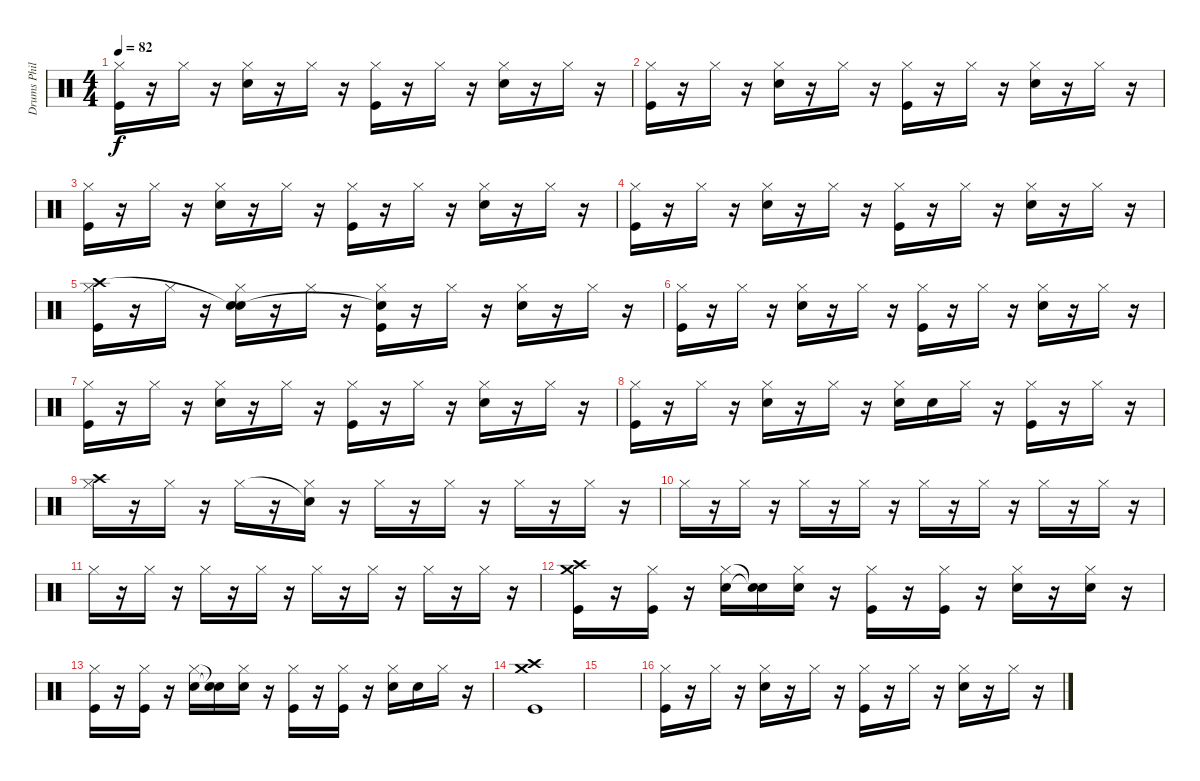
\track ("Drums Phill" "Drums Phil") {instrument percussion}
\staff {score}
\articulation defaults
\ts (4 4)
\tempo 82
\clef neutral
\ks c
("Hi-Hat (closed)" "Kick (hit)").16{dy f} r.16 "Hi-Hat (closed)".16 r.16 ("Hi-Hat (closed)" "Snare (hit) 2").16 r.16 "Hi-Hat (closed)".16 r.16 ("Hi-Hat (closed)" "Kick (hit)").16 r.16 "Hi-Hat (closed)".16 r.16 ("Hi-Hat (closed)" "Snare (hit) 2").16 r.16 "Hi-Hat (closed)".16 r.16 |
("Hi-Hat (closed)" "Kick (hit)").16 r.16 "Hi-Hat (closed)".16 r.16 ("Hi-Hat (closed)" "Snare (hit) 2").16 r.16 "Hi-Hat (closed)".16 r.16 ("Hi-Hat (closed)" "Kick (hit)").16 r.16 "Hi-Hat (closed)".16 r.16 ("Hi-Hat (closed)" "Snare (hit) 2").16 r.16 "Hi-Hat (closed)".16 r.16 |
("Hi-Hat (closed)" "Kick (hit)").16 r.16 "Hi-Hat (closed)".16 r.16 ("Hi-Hat (closed)" "Snare (hit) 2").16 r.16 "Hi-Hat (closed)".16 r.16 ("Hi-Hat (closed)" "Kick (hit)").16 r.16 "Hi-Hat (closed)".16 r.16 ("Hi-Hat (closed)" "Snare (hit) 2").16 r.16 "Hi-Hat (closed)".16 r.16 |
("Hi-Hat (closed)" "Kick (hit)").16 r.16 "Hi-Hat (closed)".16 r.16 ("Hi-Hat (closed)" "Snare (hit) 2").16 r.16 "Hi-Hat (closed)".16 r.16 ("Hi-Hat (closed)" "Kick (hit)").16 r.16 "Hi-Hat (closed)".16 r.16 ("Hi-Hat (closed)" "Snare (hit) 2").16 r.16 "Hi-Hat (closed)".16 r.16 |
("Hi-Hat (closed)" "Crash high (hit)" "Kick (hit)").16 r.16 "Hi-Hat (closed)".16 r.16 ("Hi-Hat (closed)" "Snare (hit)"{t} "Snare (hit) 2").16 r.16 "Hi-Hat (closed)".16 r.16 ("Hi-Hat (closed)" "Snare (hit)"{t} "Kick (hit)").16 r.16 "Hi-Hat (closed)".16 r.16 ("Hi-Hat (closed)" "Snare (hit) 2").16 r.16 "Hi-Hat (closed)".16 r.16 |
("Hi-Hat (closed)" "Kick (hit)").16 r.16 "Hi-Hat (closed)".16 r.16 ("Hi-Hat (closed)" "Snare (hit) 2").16 r.16 "Hi-Hat (closed)".16 r.16 ("Hi-Hat (closed)" "Kick (hit)").16 r.16 "Hi-Hat (closed)".16 r.16 ("Hi-Hat (closed)" "Snare (hit) 2").16 r.16 "Hi-Hat (closed)".16 r.16 |
("Hi-Hat (closed)" "Kick (hit)").16 r.16 "Hi-Hat (closed)".16 r.16 ("Hi-Hat (closed)" "Snare (hit) 2").16 r.16 "Hi-Hat (closed)".16 r.16 ("Hi-Hat (closed)" "Kick (hit)").16 r.16 "Hi-Hat (closed)".16 r.16 ("Hi-Hat (closed)" "Snare (hit) 2").16 r.16 "Hi-Hat (closed)".16 r.16 |
("Hi-Hat (closed)" "Kick (hit)").16 r.16 "Hi-Hat (closed)".16 r.16 ("Hi-Hat (closed)" "Snare (hit) 2").16 r.16 "Hi-Hat (closed)".16 r.16 ("Hi-Hat (closed)" "Snare (hit) 2").16 "Snare (hit) 2".16 "Hi-Hat (closed)".16 r.16 ("Hi-Hat (closed)" "Kick (hit)").16 r.16 "Hi-Hat (closed)".16 r.16 |
("Crash high (hit)" "Hi-Hat (closed)").16 r.16 "Hi-Hat (closed)".16 r.16 "Hi-Hat (closed)".16 r.16 ("Snare (hit)"{t} "Hi-Hat (closed)").16 r.16 "Hi-Hat (closed)".16 r.16 "Hi-Hat (closed)".16 r.16 "Hi-Hat (closed)".16 r.16 "Hi-Hat (closed)".16 r.16 |
"Hi-Hat (closed)".16 r.16 "Hi-Hat (closed)".16 r.16 "Hi-Hat (closed)".16 r.16 "Hi-Hat (closed)".16 r.16 "Hi-Hat (closed)".16 r.16 "Hi-Hat (closed)".16 r.16 "Hi-Hat (closed)".16 r.16 "Hi-Hat (closed)".16 r.16 |
"Hi-Hat (closed)".16 r.16 "Hi-Hat (closed)".16 r.16 "Hi-Hat (closed)".16 r.16 "Hi-Hat (closed)".16 r.16 "Hi-Hat (closed)".16 r.16 "Hi-Hat (closed)".16 r.16 "Hi-Hat (closed)".16 r.16 "Hi-Hat (closed)".16 r.16 |
("Crash high (hit)" "Crash medium (hit)" "Kick (hit)").16 r.16 ("Hi-Hat (closed)" "Kick (hit)").16 r.16 ("Hi-Hat (closed)" "Snare (hit) 2").16 ("Snare (hit)"{t} "Snare (hit)"{t}).16 ("Hi-Hat (closed)" "Snare (hit) 2").16 r.16 ("Hi-Hat (closed)" "Kick (hit)").16 r.16 ("Hi-Hat (closed)" "Kick (hit)").16 r.16 ("Hi-Hat (closed)" "Snare (hit) 2").16 r.16 ("Hi-Hat (closed)" "Snare (hit) 2").16 r.16 |
("Hi-Hat (closed)" "Kick (hit)").16 r.16 ("Hi-Hat (closed)" "Kick (hit)").16 r.16 ("Hi-Hat (closed)" "Snare (hit) 2").16 ("Snare (hit)"{t} "Snare (hit)"{t}).16 ("Hi-Hat (closed)" "Snare (hit) 2").16 r.16 ("Hi-Hat (closed)" "Kick (hit)").16 r.16 ("Hi-Hat (closed)" "Kick (hit)").16 r.16 ("Hi-Hat (closed)" "Snare (hit) 2").16 "Snare (hit) 2".16 "Hi-Hat (closed)".16 r.16 |
("Crash medium (hit)" "Crash high (hit)" "Kick (hit)").1 |
|
("Hi-Hat (closed)" "Kick (hit)").16 r.16 "Hi-Hat (closed)".16 r.16 ("Hi-Hat (closed)" "Snare (hit) 2").16 r.16 "Hi-Hat (closed)".16 r.16 ("Hi-Hat (closed)" "Kick (hit)").16 r.16 "Hi-Hat (closed)".16 r.16 ("Hi-Hat (closed)" "Snare (hit) 2").16 r.16 "Hi-Hat (closed)".16 r.16
